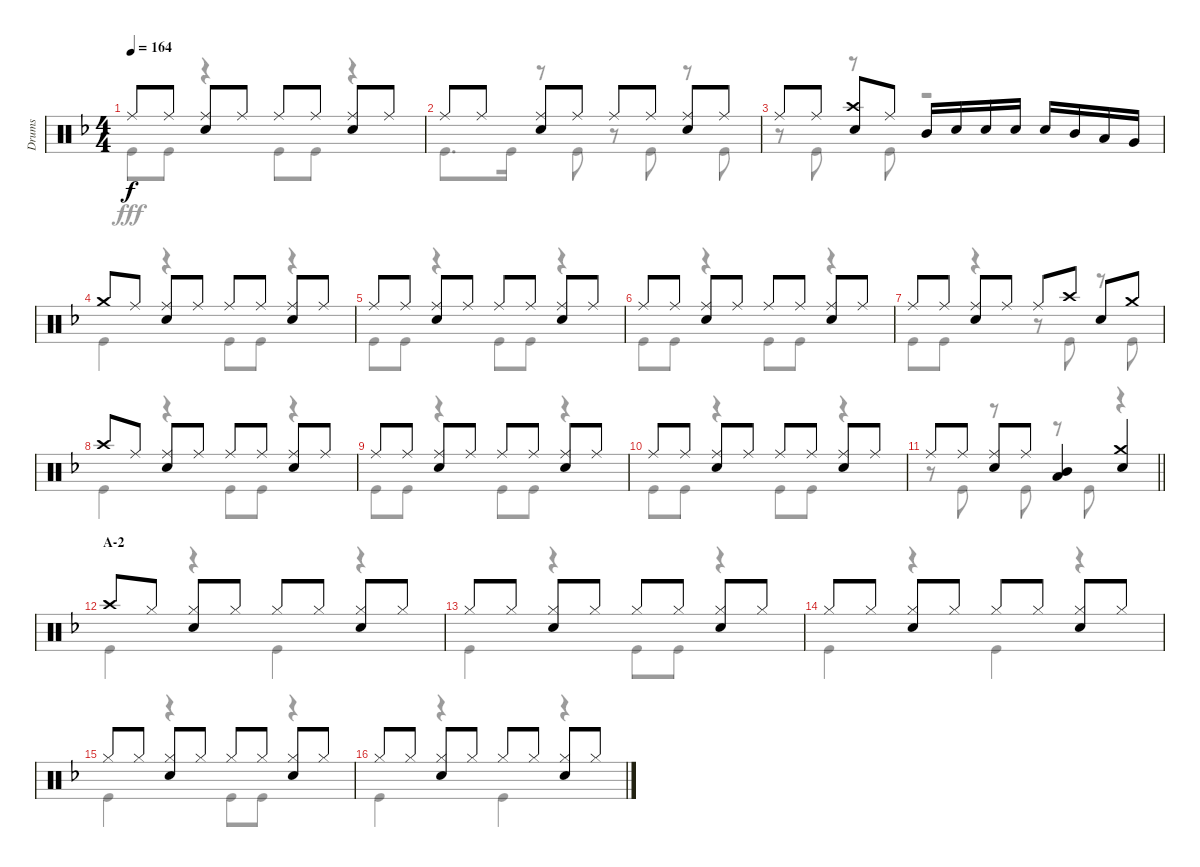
\track ("Drums" "Drums") {instrument percussion}
\staff {score}
\articulation defaults
\voice
\ts (4 4)
\tempo 164
\clef neutral
\ks f "Ride (middle)".8{dy f} "Ride (middle)".8
("Ride (middle)" "Snare (hit) 2").8 "Ride (middle)".8 "Ride (middle)".8 "Ride (middle)".8 ("Ride (middle)" "Snare (hit) 2").8 "Ride (middle)".8 |
"Ride (middle)".8 "Ride (middle)".8 ("Ride (middle)" "Snare (hit) 2").8 "Ride (middle)".8 "Ride (middle)".8 "Ride (middle)".8 ("Ride (middle)" "Snare (hit) 2").8 "Ride (middle)".8 |
"Ride (middle)".8 "Ride (middle)".8 ("Crash high (hit)" "Snare (hit) 2").8 "Ride (middle)".8 "Mid Tom (hit)".16 "Snare (hit) 2".16 "Snare (hit) 2".16 "Snare (hit) 2".16 "Snare (hit) 2".16 "Mid Tom (hit)".16 "Low Tom (hit)".16 "Very Low Tom (hit)".16 |
"Crash medium (hit)".8 "Ride (middle)".8 ("Ride (middle)" "Snare (hit) 2").8 "Ride (middle)".8 "Ride (middle)".8 "Ride (middle)".8 ("Ride (middle)" "Snare (hit) 2").8 "Ride (middle)".8 |
"Ride (middle)".8 "Ride (middle)".8 ("Ride (middle)" "Snare (hit) 2").8 "Ride (middle)".8 "Ride (middle)".8 "Ride (middle)".8 ("Ride (middle)" "Snare (hit) 2").8 "Ride (middle)".8 |
"Ride (middle)".8 "Ride (middle)".8 ("Ride (middle)" "Snare (hit) 2").8 "Ride (middle)".8 "Ride (middle)".8 "Ride (middle)".8 ("Ride (middle)" "Snare (hit) 2").8 "Ride (middle)".8 |
"Ride (middle)".8 "Ride (middle)".8 ("Ride (middle)" "Snare (hit) 2").8 "Ride (middle)".8 "Ride (middle)".8 "Crash high (hit)".8 "Snare (hit) 2".8 "Crash medium (hit)".8 |
"Crash high (hit)".8 "Ride (middle)".8 ("Ride (middle)" "Snare (hit) 2").8 "Ride (middle)".8 "Ride (middle)".8 "Ride (middle)".8 ("Ride (middle)" "Snare (hit) 2").8 "Ride (middle)".8 |
"Ride (middle)".8 "Ride (middle)".8 ("Ride (middle)" "Snare (hit) 2").8 "Ride (middle)".8 "Ride (middle)".8 "Ride (middle)".8 ("Ride (middle)" "Snare (hit) 2").8 "Ride (middle)".8 |
"Ride (middle)".8 "Ride (middle)".8 ("Ride (middle)" "Snare (hit) 2").8 "Ride (middle)".8 "Ride (middle)".8 "Ride (middle)".8 ("Ride (middle)" "Snare (hit) 2").8 "Ride (middle)".8 |
\barLineRight lightlight "Ride (middle)".8 "Ride (middle)".8
("Ride (middle)" "Snare (hit) 2").8 "Ride (middle)".8 ("Mid Tom (hit)" "Low Tom (hit)").4 ("Crash medium (hit)" "Snare (hit) 2").4 |
\section ("" "A-2")
"Crash high (hit)".8 "Hi-Hat (closed)".8 ("Hi-Hat (closed)" "Snare (hit) 2").8 "Hi-Hat (closed)".8 "Hi-Hat (closed)".8 "Hi-Hat (closed)".8 ("Hi-Hat (closed)" "Snare (hit) 2").8 "Hi-Hat (closed)".8 |
"Hi-Hat (closed)".8 "Hi-Hat (closed)".8 ("Hi-Hat (closed)" "Snare (hit) 2").8 "Hi-Hat (closed)".8 "Hi-Hat (closed)".8 "Hi-Hat (closed)".8 ("Hi-Hat (closed)" "Snare (hit) 2").8 "Hi-Hat (closed)".8 |
"Hi-Hat (closed)".8 "Hi-Hat (closed)".8 ("Hi-Hat (closed)" "Snare (hit) 2").8 "Hi-Hat (closed)".8 "Hi-Hat (closed)".8 "Hi-Hat (closed)".8 ("Hi-Hat (closed)" "Snare (hit) 2").8 "Hi-Hat (closed)".8 |
"Hi-Hat (closed)".8 "Hi-Hat (closed)".8 ("Hi-Hat (closed)" "Snare (hit) 2").8 "Hi-Hat (closed)".8 "Hi-Hat (closed)".8 "Hi-Hat (closed)".8 ("Hi-Hat (closed)" "Snare (hit) 2").8 "Hi-Hat (closed)".8 |
"Hi-Hat (closed)".8 "Hi-Hat (closed)".8 ("Hi-Hat (closed)" "Snare (hit) 2").8 "Hi-Hat (closed)".8 "Hi-Hat (closed)".8 "Hi-Hat (closed)".8 ("Hi-Hat (closed)" "Snare (hit) 2").8 "Hi-Hat (closed)".8
\voice
\clef neutral
\ottava regular
\simile none
\ks f "Kick (hit)".8{dy fff} "Kick (hit)".8
r.4 "Kick (hit)".8 "Kick (hit)".8 r.4 |
"Kick (hit)".8{d} "Kick (hit)".16 r.8 "Kick (hit)".8 r.8 "Kick (hit)".8 r.8 "Kick (hit)".8 |
r.8 "Kick (hit)".8 r.8 "Kick (hit)".8 r.2 |
"Kick (hit)".4 r.4 "Kick (hit)".8 "Kick (hit)".8 r.4 |
"Kick (hit)".8 "Kick (hit)".8 r.4 "Kick (hit)".8 "Kick (hit)".8 r.4 |
"Kick (hit)".8 "Kick (hit)".8 r.4 "Kick (hit)".8 "Kick (hit)".8 r.4 |
"Kick (hit)".8 "Kick (hit)".8 r.4 r.8 "Kick (hit)".8 r.8 "Kick (hit)".8 |
"Kick (hit)".4 r.4 "Kick (hit)".8 "Kick (hit)".8 r.4 |
"Kick (hit)".8 "Kick (hit)".8 r.4 "Kick (hit)".8 "Kick (hit)".8 r.4 |
"Kick (hit)".8 "Kick (hit)".8 r.4 "Kick (hit)".8 "Kick (hit)".8 r.4 |
\barLineRight lightlight
r.8 "Kick (hit)".8 r.8 "Kick (hit)".8 r.8 "Kick (hit)".8 r.4 |
"Kick (hit)".4 r.4 "Kick (hit)".4 r.4 |
"Kick (hit)".4 r.4 "Kick (hit)".8 "Kick (hit)".8 r.4 |
"Kick (hit)".4 r.4 "Kick (hit)".4 r.4 |
"Kick (hit)".4 r.4 "Kick (hit)".8 "Kick (hit)".8 r.4 |
"Kick (hit)".4 r.4 "Kick (hit)".4 r.4
